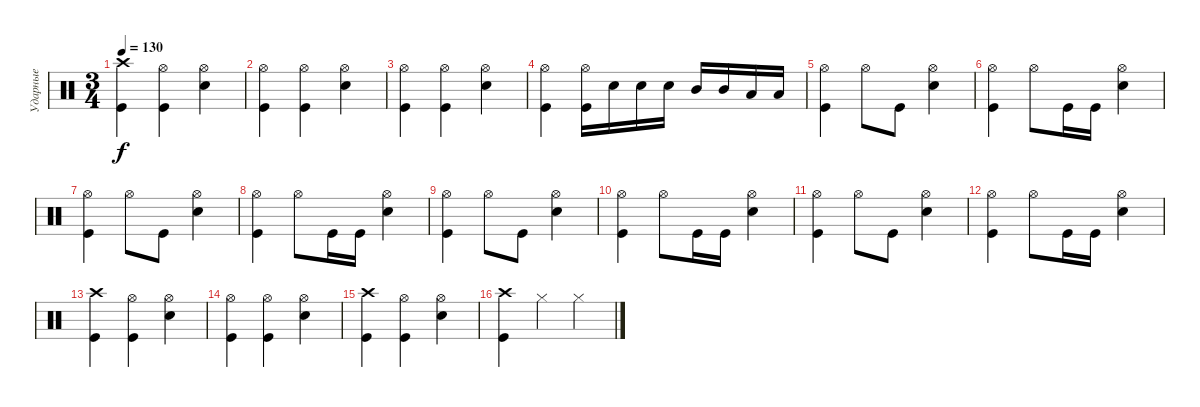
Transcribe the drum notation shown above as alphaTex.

\track ("Ударные" "Ударные") {instrument percussion}
\staff {score}
\articulation defaults
\ts (3 4)
\tempo 130
\clef neutral
\ks c
("Kick (hit)" "Crash high (hit)").4{dy f} ("Hi-Hat (open)" "Kick (hit)").4 ("Hi-Hat (open)" "Snare (hit) 2").4 |
("Hi-Hat (open)" "Kick (hit)").4 ("Hi-Hat (open)" "Kick (hit)").4 ("Hi-Hat (open)" "Snare (hit) 2").4 |
("Hi-Hat (open)" "Kick (hit)").4 ("Hi-Hat (open)" "Kick (hit)").4 ("Hi-Hat (open)" "Snare (hit) 2").4 |
("Hi-Hat (open)" "Kick (hit)").4 ("Hi-Hat (open)" "Kick (hit)").16 "Snare (hit) 2".16 "Snare (hit) 2".16 "Snare (hit) 2".16 "Mid Tom (hit)".16 "Mid Tom (hit)".16 "Low Tom (hit)".16 "Low Tom (hit)".16 |
("Kick (hit)" "Hi-Hat (open)").4 "Hi-Hat (open)".8 "Kick (hit)".8 ("Hi-Hat (open)" "Snare (hit) 2").4 |
("Kick (hit)" "Hi-Hat (open)").4 "Hi-Hat (open)".8 "Kick (hit)".16 "Kick (hit)".16 ("Hi-Hat (open)" "Snare (hit) 2").4 |
("Kick (hit)" "Hi-Hat (open)").4 "Hi-Hat (open)".8 "Kick (hit)".8 ("Hi-Hat (open)" "Snare (hit) 2").4 |
("Kick (hit)" "Hi-Hat (open)").4 "Hi-Hat (open)".8 "Kick (hit)".16 "Kick (hit)".16 ("Hi-Hat (open)" "Snare (hit) 2").4 |
("Kick (hit)" "Hi-Hat (open)").4 "Hi-Hat (open)".8 "Kick (hit)".8 ("Hi-Hat (open)" "Snare (hit) 2").4 |
("Kick (hit)" "Hi-Hat (open)").4 "Hi-Hat (open)".8 "Kick (hit)".16 "Kick (hit)".16 ("Hi-Hat (open)" "Snare (hit) 2").4 |
("Kick (hit)" "Hi-Hat (open)").4 "Hi-Hat (open)".8 "Kick (hit)".8 ("Hi-Hat (open)" "Snare (hit) 2").4 |
("Kick (hit)" "Hi-Hat (open)").4 "Hi-Hat (open)".8 "Kick (hit)".16 "Kick (hit)".16 ("Hi-Hat (open)" "Snare (hit) 2").4 |
("Kick (hit)" "Crash high (hit)").4 ("Hi-Hat (open)" "Kick (hit)").4 ("Hi-Hat (open)" "Snare (hit) 2").4 |
("Hi-Hat (open)" "Kick (hit)").4 ("Hi-Hat (open)" "Kick (hit)").4 ("Hi-Hat (open)" "Snare (hit) 2").4 |
("Kick (hit)" "Crash high (hit)").4 ("Hi-Hat (open)" "Kick (hit)").4 ("Hi-Hat (open)" "Snare (hit) 2").4 |
("Crash high (hit)" "Kick (hit)").4 "Hi-Hat (closed)".4 "Hi-Hat (closed)".4
